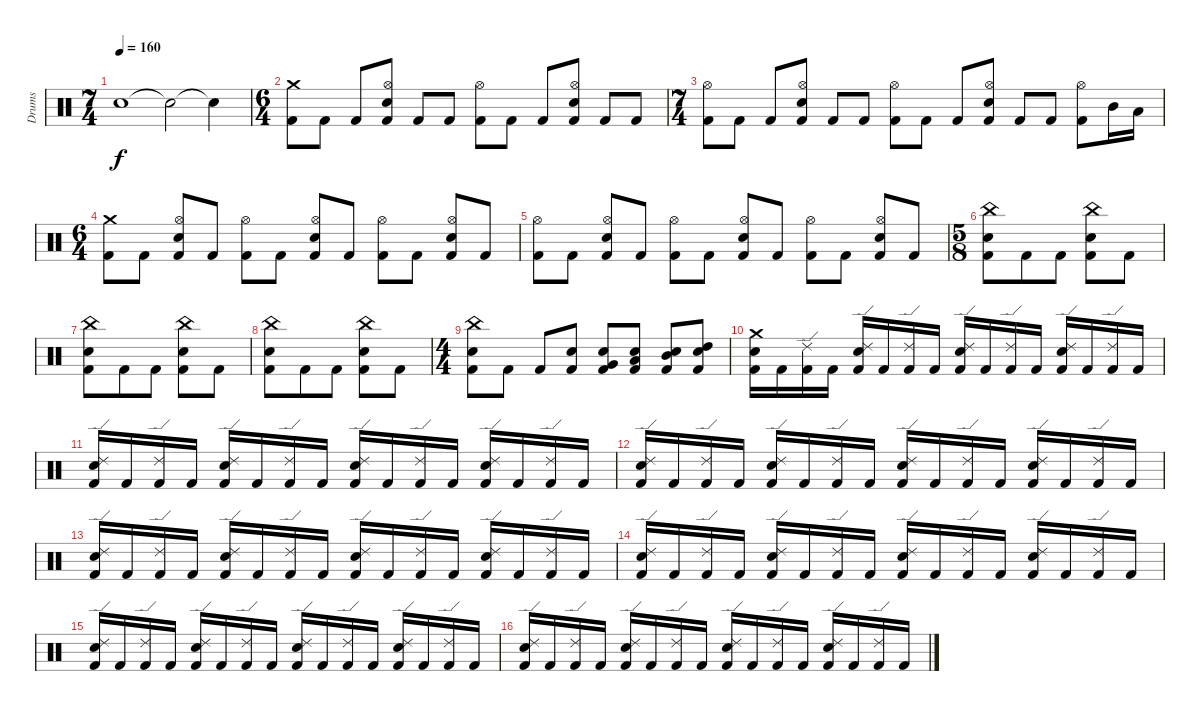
\track ("Drums" "Drums") {instrument percussion}
\staff {score}
\articulation defaults
\ts (7 4)
\tempo 160
\clef neutral
\ks c "Snare (hit)"{t}.1{dy f} "Snare (hit)"{t}.2 "Snare (hit)"{t}.4
|
\ts (6 4)
("Crash medium (hit)" "Kick (hit) 2").8 "Kick (hit) 2".8 "Kick (hit) 2".8 ("Hi-Hat (open)" "Electric Snare (hit)" "Kick (hit) 2").8 "Kick (hit) 2".8 "Kick (hit) 2".8 ("Hi-Hat (open)" "Kick (hit) 2").8 "Kick (hit) 2".8 "Kick (hit) 2".8 ("Hi-Hat (open)" "Electric Snare (hit)" "Kick (hit) 2").8 "Kick (hit) 2".8 "Kick (hit) 2".8 |
\ts (7 4)
("Hi-Hat (open)" "Kick (hit) 2").8 "Kick (hit) 2".8 "Kick (hit) 2".8 ("Hi-Hat (open)" "Electric Snare (hit)" "Kick (hit) 2").8 "Kick (hit) 2".8 "Kick (hit) 2".8 ("Hi-Hat (open)" "Kick (hit) 2").8 "Kick (hit) 2".8 "Kick (hit) 2".8 ("Hi-Hat (open)" "Electric Snare (hit)" "Kick (hit) 2").8 "Kick (hit) 2".8 "Kick (hit) 2".8 ("Hi-Hat (open)" "Kick (hit) 2").8 "Mid Tom (hit)".16 "Low Tom (hit)".16 |
\ts (6 4)
("Crash medium (hit)" "Kick (hit) 2").8 "Kick (hit) 2".8 ("Hi-Hat (open)" "Kick (hit) 2" "Electric Snare (hit)").8 "Kick (hit) 2".8 ("Hi-Hat (open)" "Kick (hit) 2").8 "Kick (hit) 2".8 ("Hi-Hat (open)" "Kick (hit) 2" "Electric Snare (hit)").8 "Kick (hit) 2".8 ("Hi-Hat (open)" "Kick (hit) 2").8 "Kick (hit) 2".8 ("Hi-Hat (open)" "Kick (hit) 2" "Electric Snare (hit)").8 "Kick (hit) 2".8 |
("Hi-Hat (open)" "Kick (hit) 2").8 "Kick (hit) 2".8 ("Hi-Hat (open)" "Kick (hit) 2" "Electric Snare (hit)").8 "Kick (hit) 2".8 ("Hi-Hat (open)" "Kick (hit) 2").8 "Kick (hit) 2".8 ("Hi-Hat (open)" "Kick (hit) 2" "Electric Snare (hit)").8 "Kick (hit) 2".8 ("Hi-Hat (open)" "Kick (hit) 2").8 "Kick (hit) 2".8 ("Hi-Hat (open)" "Kick (hit) 2" "Electric Snare (hit)").8 "Kick (hit) 2".8 |
\ts (5 8)
("China (hit)" "Electric Snare (hit)" "Kick (hit) 2").8 "Kick (hit) 2".8 "Kick (hit) 2".8 ("China (hit)" "Electric Snare (hit)" "Kick (hit) 2").8 "Kick (hit) 2".8 |
("China (hit)" "Electric Snare (hit)" "Kick (hit) 2").8 "Kick (hit) 2".8 "Kick (hit) 2".8 ("China (hit)" "Electric Snare (hit)" "Kick (hit) 2").8 "Kick (hit) 2".8 |
("China (hit)" "Electric Snare (hit)" "Kick (hit) 2").8 "Kick (hit) 2".8 "Kick (hit) 2".8 ("China (hit)" "Electric Snare (hit)" "Kick (hit) 2").8 "Kick (hit) 2".8 |
\ts (4 4)
("China (hit)" "Electric Snare (hit)" "Kick (hit) 2").8 "Kick (hit) 2".8 "Kick (hit) 2".8 ("Electric Snare (hit)" "Kick (hit) 2").8 ("Very Low Tom (hit)" "Electric Snare (hit)" "Kick (hit) 2").8 ("Low Tom (hit)" "Electric Snare (hit)" "Kick (hit) 2").8 ("Mid Tom (hit)" "Kick (hit) 2" "Electric Snare (hit)").8 ("High Tom (hit)" "Kick (hit) 2" "Electric Snare (hit)").8 |
("Crash medium (hit)" "Kick (hit) 2" "Electric Snare (hit)").16 "Kick (hit) 2".16 ("Ride (edge) 2" "Kick (hit) 2").16 "Kick (hit) 2".16 ("Ride (edge) 2" "Kick (hit) 2" "Electric Snare (hit)").16 "Kick (hit) 2".16 ("Ride (edge) 2" "Kick (hit) 2").16 "Kick (hit) 2".16 ("Ride (edge) 2" "Kick (hit) 2" "Electric Snare (hit)").16 "Kick (hit) 2".16 ("Ride (edge) 2" "Kick (hit) 2").16 "Kick (hit) 2".16 ("Ride (edge) 2" "Kick (hit) 2" "Electric Snare (hit)").16 "Kick (hit) 2".16 ("Ride (edge) 2" "Kick (hit) 2").16 "Kick (hit) 2".16 |
("Ride (edge) 2" "Kick (hit) 2" "Electric Snare (hit)").16 "Kick (hit) 2".16 ("Ride (edge) 2" "Kick (hit) 2").16 "Kick (hit) 2".16 ("Ride (edge) 2" "Kick (hit) 2" "Electric Snare (hit)").16 "Kick (hit) 2".16 ("Ride (edge) 2" "Kick (hit) 2").16 "Kick (hit) 2".16 ("Ride (edge) 2" "Kick (hit) 2" "Electric Snare (hit)").16 "Kick (hit) 2".16 ("Ride (edge) 2" "Kick (hit) 2").16 "Kick (hit) 2".16 ("Ride (edge) 2" "Kick (hit) 2" "Electric Snare (hit)").16 "Kick (hit) 2".16 ("Ride (edge) 2" "Kick (hit) 2").16 "Kick (hit) 2".16 |
("Ride (edge) 2" "Kick (hit) 2" "Electric Snare (hit)").16 "Kick (hit) 2".16 ("Ride (edge) 2" "Kick (hit) 2").16 "Kick (hit) 2".16 ("Ride (edge) 2" "Kick (hit) 2" "Electric Snare (hit)").16 "Kick (hit) 2".16 ("Ride (edge) 2" "Kick (hit) 2").16 "Kick (hit) 2".16 ("Ride (edge) 2" "Kick (hit) 2" "Electric Snare (hit)").16 "Kick (hit) 2".16 ("Ride (edge) 2" "Kick (hit) 2").16 "Kick (hit) 2".16 ("Ride (edge) 2" "Kick (hit) 2" "Electric Snare (hit)").16 "Kick (hit) 2".16 ("Ride (edge) 2" "Kick (hit) 2").16 "Kick (hit) 2".16 |
("Ride (edge) 2" "Kick (hit) 2" "Electric Snare (hit)").16 "Kick (hit) 2".16 ("Ride (edge) 2" "Kick (hit) 2").16 "Kick (hit) 2".16 ("Ride (edge) 2" "Kick (hit) 2" "Electric Snare (hit)").16 "Kick (hit) 2".16 ("Ride (edge) 2" "Kick (hit) 2").16 "Kick (hit) 2".16 ("Ride (edge) 2" "Kick (hit) 2" "Electric Snare (hit)").16 "Kick (hit) 2".16 ("Ride (edge) 2" "Kick (hit) 2").16 "Kick (hit) 2".16 ("Ride (edge) 2" "Kick (hit) 2" "Electric Snare (hit)").16 "Kick (hit) 2".16 ("Ride (edge) 2" "Kick (hit) 2").16 "Kick (hit) 2".16 |
("Ride (edge) 2" "Kick (hit) 2" "Electric Snare (hit)").16 "Kick (hit) 2".16 ("Ride (edge) 2" "Kick (hit) 2").16 "Kick (hit) 2".16 ("Ride (edge) 2" "Kick (hit) 2" "Electric Snare (hit)").16 "Kick (hit) 2".16 ("Ride (edge) 2" "Kick (hit) 2").16 "Kick (hit) 2".16 ("Ride (edge) 2" "Kick (hit) 2" "Electric Snare (hit)").16 "Kick (hit) 2".16 ("Ride (edge) 2" "Kick (hit) 2").16 "Kick (hit) 2".16 ("Ride (edge) 2" "Kick (hit) 2" "Electric Snare (hit)").16 "Kick (hit) 2".16 ("Ride (edge) 2" "Kick (hit) 2").16 "Kick (hit) 2".16 |
("Ride (edge) 2" "Kick (hit) 2" "Electric Snare (hit)").16 "Kick (hit) 2".16 ("Ride (edge) 2" "Kick (hit) 2").16 "Kick (hit) 2".16 ("Ride (edge) 2" "Kick (hit) 2" "Electric Snare (hit)").16 "Kick (hit) 2".16 ("Ride (edge) 2" "Kick (hit) 2").16 "Kick (hit) 2".16 ("Ride (edge) 2" "Kick (hit) 2" "Electric Snare (hit)").16 "Kick (hit) 2".16 ("Ride (edge) 2" "Kick (hit) 2").16 "Kick (hit) 2".16 ("Ride (edge) 2" "Kick (hit) 2" "Electric Snare (hit)").16 "Kick (hit) 2".16 ("Ride (edge) 2" "Kick (hit) 2").16 "Kick (hit) 2".16 |
("Ride (edge) 2" "Kick (hit) 2" "Electric Snare (hit)").16 "Kick (hit) 2".16 ("Ride (edge) 2" "Kick (hit) 2").16 "Kick (hit) 2".16 ("Ride (edge) 2" "Kick (hit) 2" "Electric Snare (hit)").16 "Kick (hit) 2".16 ("Ride (edge) 2" "Kick (hit) 2").16 "Kick (hit) 2".16 ("Ride (edge) 2" "Kick (hit) 2" "Electric Snare (hit)").16 "Kick (hit) 2".16 ("Ride (edge) 2" "Kick (hit) 2").16 "Kick (hit) 2".16 ("Ride (edge) 2" "Kick (hit) 2" "Electric Snare (hit)").16 "Kick (hit) 2".16 ("Ride (edge) 2" "Kick (hit) 2").16 "Kick (hit) 2".16
